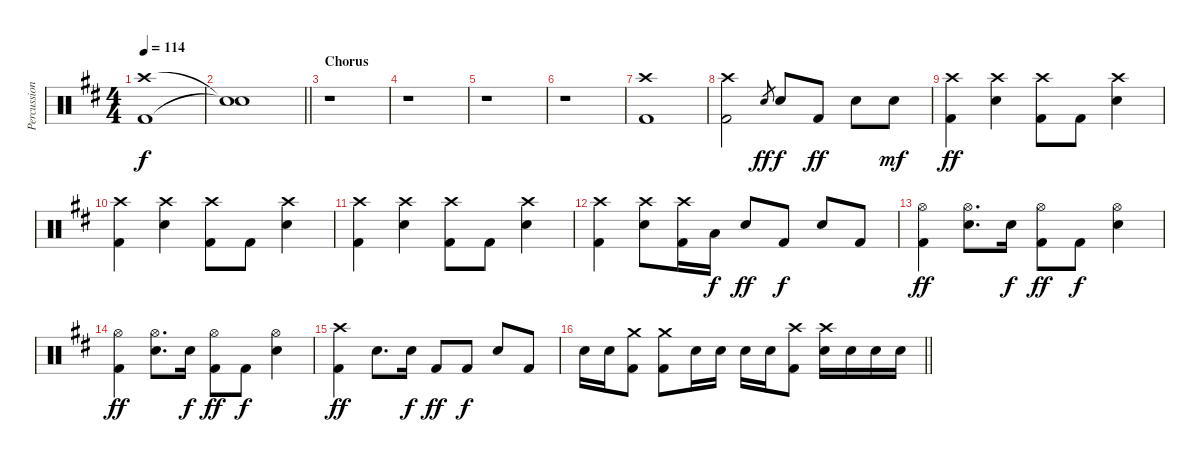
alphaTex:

\track ("Percussion" "Percussion") {instrument percussion}
\staff {score}
\articulation defaults
\ts (4 4)
\tempo 114
\clef neutral
\ks d
("Crash high (hit)" "Kick (hit) 2").1{dy f} |
\barLineRight lightlight
("Snare (hit)"{t} "Snare (hit)"{t}).1 |
\section ("" "Chorus")
r.1 |
r.1 |
r.1 |
r.1 |
("Crash high (hit)" "Kick (hit) 2").1 |
("Crash high (hit)" "Kick (hit) 2").2 "Snare (hit) 2".8{gr dy ff} "Snare (hit) 2".8{dy f} "Kick (hit) 2".8{dy ff} "Snare (hit) 2".8 "Snare (hit) 2".8{dy mf} |
("Crash high (hit)" "Kick (hit) 2").4{dy ff} ("Crash high (hit)" "Snare (hit) 2").4 ("Crash high (hit)" "Kick (hit) 2").8 "Kick (hit) 2".8 ("Crash high (hit)" "Snare (hit) 2").4 |
("Crash high (hit)" "Kick (hit) 2").4 ("Crash high (hit)" "Snare (hit) 2").4 ("Crash high (hit)" "Kick (hit) 2").8 "Kick (hit) 2".8 ("Crash high (hit)" "Snare (hit) 2").4 |
("Crash high (hit)" "Kick (hit) 2").4 ("Crash high (hit)" "Snare (hit) 2").4 ("Crash high (hit)" "Kick (hit) 2").8 "Kick (hit) 2".8 ("Crash high (hit)" "Snare (hit) 2").4 |
("Crash high (hit)" "Kick (hit) 2").4 ("Crash high (hit)" "Snare (hit) 2").8 ("Crash high (hit)" "Kick (hit) 2").16 "Low Tom (hit)".16{dy f} "Snare (hit) 2".8{dy ff} "Kick (hit) 2".8{dy f} "Snare (hit) 2".8 "Kick (hit) 2".8 |
("Hi-Hat (open)" "Kick (hit) 2").4{dy ff} ("Hi-Hat (open)" "Snare (hit) 2").8{d} "Snare (hit) 2".16{dy f} ("Hi-Hat (open)" "Kick (hit) 2").8{dy ff} "Kick (hit) 2".8{dy f} ("Hi-Hat (open)" "Snare (hit) 2").4 |
("Hi-Hat (open)" "Kick (hit) 2").4{dy ff} ("Hi-Hat (open)" "Snare (hit) 2").8{d} "Snare (hit) 2".16{dy f} ("Hi-Hat (open)" "Kick (hit) 2").8{dy ff} "Kick (hit) 2".8{dy f} ("Hi-Hat (open)" "Snare (hit) 2").4 |
("Crash high (hit)" "Kick (hit) 2").4{dy ff} "Snare (hit) 2".8{d} "Snare (hit) 2".16{dy f} "Kick (hit) 2".8{dy ff} "Kick (hit) 2".8{dy f} "Snare (hit) 2".8 "Kick (hit) 2".8 |
\barLineRight lightlight "Snare (hit) 2".16 "Snare (hit) 2".16
("Crash medium (hit)" "Kick (hit) 2").8 ("Crash medium (hit)" "Kick (hit) 2").8 "Snare (hit) 2".16 "Snare (hit) 2".16 "Snare (hit) 2".16 "Snare (hit) 2".16 ("Crash high (hit)" "Kick (hit) 2").8 ("Crash high (hit)" "Snare (hit) 2").16 "Snare (hit) 2".16 "Snare (hit) 2".16 "Snare (hit) 2".16
